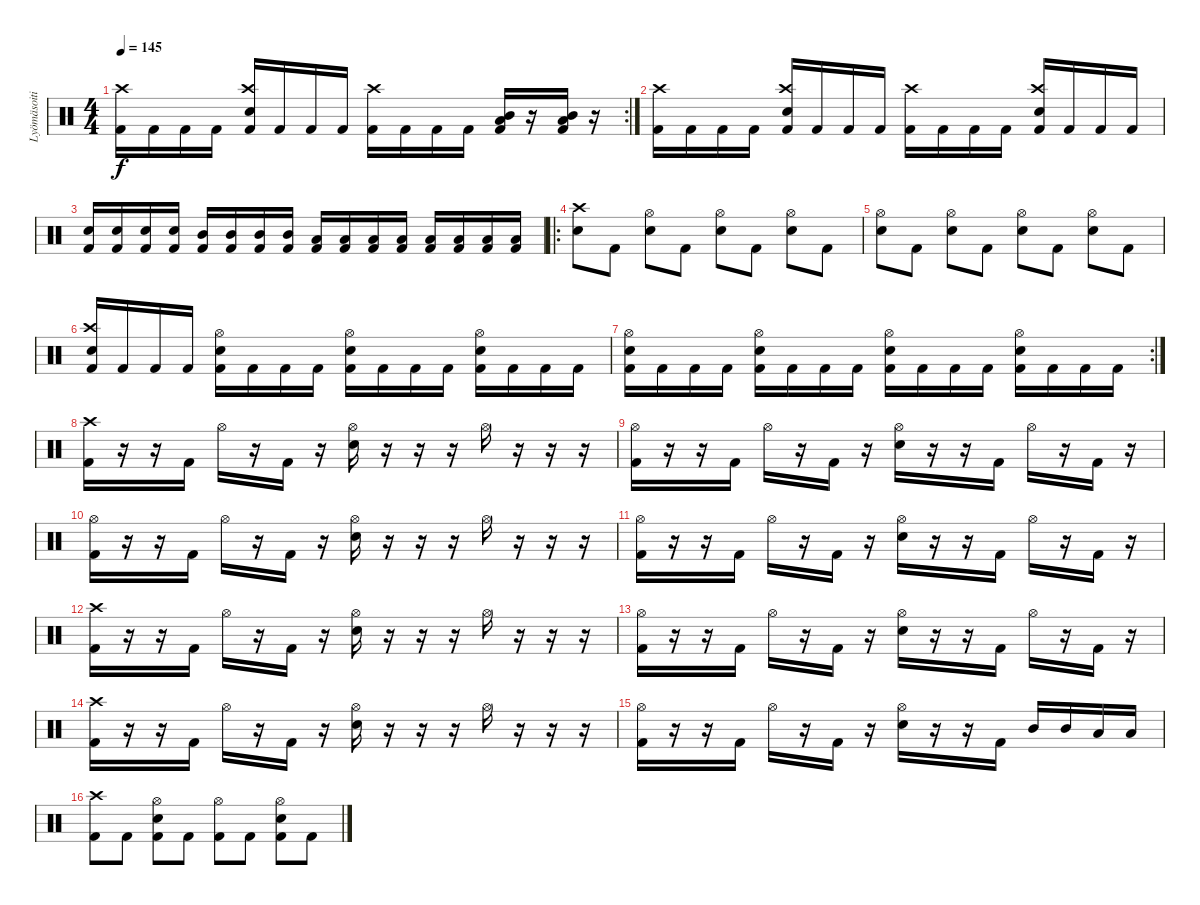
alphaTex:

\track ("Lyömäsoitin" "Lyömäsoiti") {instrument percussion}
\staff {score}
\articulation defaults
\rc 2
\ts (4 4)
\tempo 145
\clef neutral
\ks c
("Kick (hit) 2" "Crash high (hit)").16{dy f} "Kick (hit) 2".16 "Kick (hit) 2".16 "Kick (hit) 2".16 ("Kick (hit) 2" "Electric Snare (hit)" "Crash high (hit)").16 "Kick (hit) 2".16 "Kick (hit) 2".16 "Kick (hit) 2".16 ("Kick (hit) 2" "Crash high (hit)").16 "Kick (hit) 2".16 "Kick (hit) 2".16 "Kick (hit) 2".16 ("Kick (hit) 2" "Mid Tom (hit)" "Low Tom (hit)").16 r.16 ("Kick (hit) 2" "Mid Tom (hit)" "Low Tom (hit)").16 r.16 |
("Kick (hit) 2" "Crash high (hit)").16 "Kick (hit) 2".16 "Kick (hit) 2".16 "Kick (hit) 2".16 ("Kick (hit) 2" "Electric Snare (hit)" "Crash high (hit)").16 "Kick (hit) 2".16 "Kick (hit) 2".16 "Kick (hit) 2".16 ("Kick (hit) 2" "Crash high (hit)").16 "Kick (hit) 2".16 "Kick (hit) 2".16 "Kick (hit) 2".16 ("Kick (hit) 2" "Electric Snare (hit)" "Crash high (hit)").16 "Kick (hit) 2".16 "Kick (hit) 2".16 "Kick (hit) 2".16 |
("Kick (hit) 2" "Electric Snare (hit)").16 ("Kick (hit) 2" "Electric Snare (hit)").16 ("Kick (hit) 2" "Electric Snare (hit)").16 ("Kick (hit) 2" "Electric Snare (hit)").16 ("Kick (hit) 2" "Mid Tom (hit)").16 ("Kick (hit) 2" "Mid Tom (hit)").16 ("Kick (hit) 2" "Mid Tom (hit)").16 ("Kick (hit) 2" "Mid Tom (hit)").16 ("Kick (hit) 2" "Low Tom (hit)").16 ("Kick (hit) 2" "Low Tom (hit)").16 ("Kick (hit) 2" "Low Tom (hit)").16 ("Kick (hit) 2" "Low Tom (hit)").16 ("Kick (hit) 2" "Low Floor Tom (hit)").16 ("Kick (hit) 2" "Low Floor Tom (hit)").16 ("Kick (hit) 2" "Low Floor Tom (hit)").16 ("Kick (hit) 2" "Low Floor Tom (hit)").16 |
\ro
("Electric Snare (hit)" "Crash high (hit)").8 "Kick (hit) 2".8 ("Electric Snare (hit)" "Hi-Hat (open)").8 "Kick (hit) 2".8 ("Electric Snare (hit)" "Hi-Hat (open)").8 "Kick (hit) 2".8 ("Electric Snare (hit)" "Hi-Hat (open)").8 "Kick (hit) 2".8 |
("Electric Snare (hit)" "Hi-Hat (open)").8 "Kick (hit) 2".8 ("Electric Snare (hit)" "Hi-Hat (open)").8 "Kick (hit) 2".8 ("Electric Snare (hit)" "Hi-Hat (open)").8 "Kick (hit) 2".8 ("Electric Snare (hit)" "Hi-Hat (open)").8 "Kick (hit) 2".8 |
("Kick (hit) 2" "Electric Snare (hit)" "Crash high (hit)").16 "Kick (hit) 2".16 "Kick (hit) 2".16 "Kick (hit) 2".16 ("Kick (hit) 2" "Electric Snare (hit)" "Hi-Hat (open)").16 "Kick (hit) 2".16 "Kick (hit) 2".16 "Kick (hit) 2".16 ("Kick (hit) 2" "Electric Snare (hit)" "Hi-Hat (open)").16 "Kick (hit) 2".16 "Kick (hit) 2".16 "Kick (hit) 2".16 ("Kick (hit) 2" "Electric Snare (hit)" "Hi-Hat (open)").16 "Kick (hit) 2".16 "Kick (hit) 2".16 "Kick (hit) 2".16 |
\rc 2
("Kick (hit) 2" "Electric Snare (hit)" "Hi-Hat (open)").16 "Kick (hit) 2".16 "Kick (hit) 2".16 "Kick (hit) 2".16 ("Kick (hit) 2" "Electric Snare (hit)" "Hi-Hat (open)").16 "Kick (hit) 2".16 "Kick (hit) 2".16 "Kick (hit) 2".16 ("Kick (hit) 2" "Electric Snare (hit)" "Hi-Hat (open)").16 "Kick (hit) 2".16 "Kick (hit) 2".16 "Kick (hit) 2".16 ("Kick (hit) 2" "Electric Snare (hit)" "Hi-Hat (open)").16 "Kick (hit) 2".16 "Kick (hit) 2".16 "Kick (hit) 2".16 |
("Kick (hit) 2" "Crash high (hit)").16 r.16 r.16 "Kick (hit) 2".16 "Hi-Hat (open)".16 r.16 "Kick (hit) 2".16 r.16 ("Electric Snare (hit)" "Hi-Hat (open)").16 r.16 r.16 r.16 "Hi-Hat (open)".16 r.16 r.16 r.16 |
("Kick (hit) 2" "Hi-Hat (open)").16 r.16 r.16 "Kick (hit) 2".16 "Hi-Hat (open)".16 r.16 "Kick (hit) 2".16 r.16 ("Electric Snare (hit)" "Hi-Hat (open)").16 r.16 r.16 "Kick (hit) 2".16 "Hi-Hat (open)".16 r.16 "Kick (hit) 2".16 r.16 |
("Kick (hit) 2" "Hi-Hat (open)").16 r.16 r.16 "Kick (hit) 2".16 "Hi-Hat (open)".16 r.16 "Kick (hit) 2".16 r.16 ("Electric Snare (hit)" "Hi-Hat (open)").16 r.16 r.16 r.16 "Hi-Hat (open)".16 r.16 r.16 r.16 |
("Kick (hit) 2" "Hi-Hat (open)").16 r.16 r.16 "Kick (hit) 2".16 "Hi-Hat (open)".16 r.16 "Kick (hit) 2".16 r.16 ("Electric Snare (hit)" "Hi-Hat (open)").16 r.16 r.16 "Kick (hit) 2".16 "Hi-Hat (open)".16 r.16 "Kick (hit) 2".16 r.16 |
("Kick (hit) 2" "Crash high (hit)").16 r.16 r.16 "Kick (hit) 2".16 "Hi-Hat (open)".16 r.16 "Kick (hit) 2".16 r.16 ("Electric Snare (hit)" "Hi-Hat (open)").16 r.16 r.16 r.16 "Hi-Hat (open)".16 r.16 r.16 r.16 |
("Kick (hit) 2" "Hi-Hat (open)").16 r.16 r.16 "Kick (hit) 2".16 "Hi-Hat (open)".16 r.16 "Kick (hit) 2".16 r.16 ("Electric Snare (hit)" "Hi-Hat (open)").16 r.16 r.16 "Kick (hit) 2".16 "Hi-Hat (open)".16 r.16 "Kick (hit) 2".16 r.16 |
("Kick (hit) 2" "Crash high (hit)").16 r.16 r.16 "Kick (hit) 2".16 "Hi-Hat (open)".16 r.16 "Kick (hit) 2".16 r.16 ("Electric Snare (hit)" "Hi-Hat (open)").16 r.16 r.16 r.16 "Hi-Hat (open)".16 r.16 r.16 r.16 |
("Kick (hit) 2" "Hi-Hat (open)").16 r.16 r.16 "Kick (hit) 2".16 "Hi-Hat (open)".16 r.16 "Kick (hit) 2".16 r.16 ("Electric Snare (hit)" "Hi-Hat (open)").16 r.16 r.16 "Kick (hit) 2".16 "Mid Tom (hit)".16 "Mid Tom (hit)".16 "Low Tom (hit)".16 "Low Tom (hit)".16 |
("Kick (hit) 2" "Crash high (hit)").8 "Kick (hit) 2".8 ("Kick (hit) 2" "Electric Snare (hit)" "Hi-Hat (open)").8 "Kick (hit) 2".8 ("Kick (hit) 2" "Hi-Hat (open)").8 "Kick (hit) 2".8 ("Kick (hit) 2" "Electric Snare (hit)" "Hi-Hat (open)").8 "Kick (hit) 2".8
